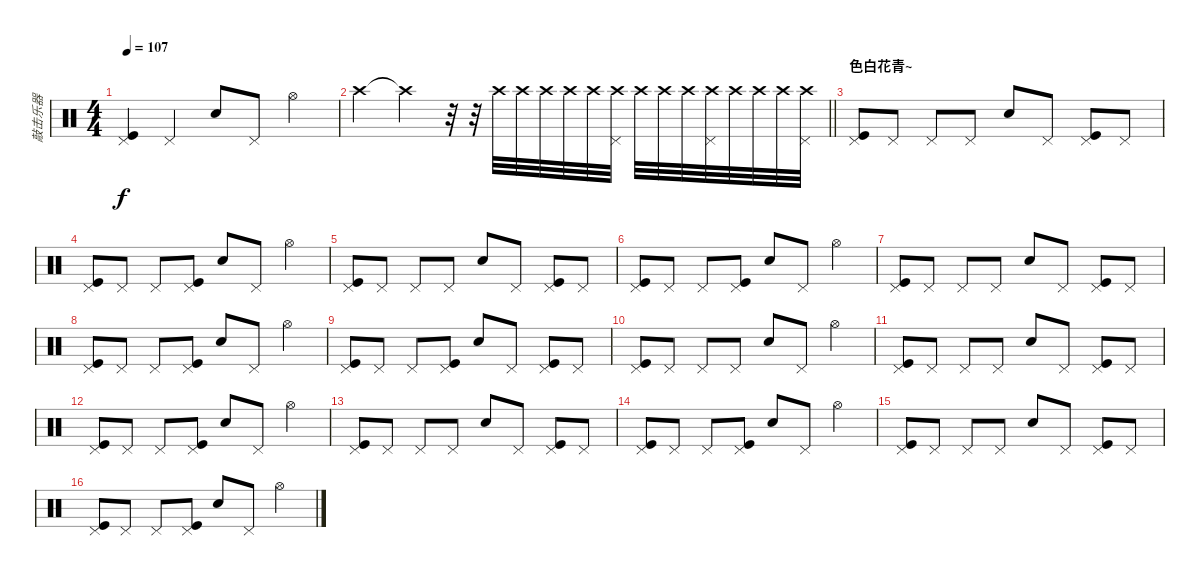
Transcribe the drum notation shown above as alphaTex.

\track ("敲击乐器" "敲击乐器") {instrument percussion}
\staff {score}
\articulation defaults
\ts (4 4)
\tempo 107
\clef neutral
\ks c
("Kick (hit)" "Pedal Hi-Hat (hit)").4{dy f} "Pedal Hi-Hat (hit)".4 "Snare (hit) 2".8 "Pedal Hi-Hat (hit)".8 "Hi-Hat (open)".4 |
\barLineRight lightlight "Crash high (hit)".4 "Crash high (hit)"{t}.4
r.32 r.32 "Crash high (hit)".32{volume 0} "Crash high (hit)".32{volume 16} "Crash high (hit)".32 "Crash high (hit)".32 "Crash high (hit)".32 ("Crash high (hit)" "Pedal Hi-Hat (hit)").32 "Crash high (hit)".32 "Crash high (hit)".32 "Crash high (hit)".32 ("Crash high (hit)" "Pedal Hi-Hat (hit)").32 "Crash high (hit)".32 "Crash high (hit)".32 "Crash high (hit)".32 ("Crash high (hit)" "Pedal Hi-Hat (hit)").32 |
\section ("" "色白花青~")
("Kick (hit)" "Pedal Hi-Hat (hit)").8 "Pedal Hi-Hat (hit)".8 "Pedal Hi-Hat (hit)".8 "Pedal Hi-Hat (hit)".8 "Snare (hit) 2".8 "Pedal Hi-Hat (hit)".8 ("Kick (hit)" "Pedal Hi-Hat (hit)").8 "Pedal Hi-Hat (hit)".8 |
("Kick (hit)" "Pedal Hi-Hat (hit)").8 "Pedal Hi-Hat (hit)".8 "Pedal Hi-Hat (hit)".8 ("Kick (hit)" "Pedal Hi-Hat (hit)").8 "Snare (hit) 2".8 "Pedal Hi-Hat (hit)".8 "Hi-Hat (open)".4 |
("Kick (hit)" "Pedal Hi-Hat (hit)").8 "Pedal Hi-Hat (hit)".8 "Pedal Hi-Hat (hit)".8 "Pedal Hi-Hat (hit)".8 "Snare (hit) 2".8 "Pedal Hi-Hat (hit)".8 ("Kick (hit)" "Pedal Hi-Hat (hit)").8 "Pedal Hi-Hat (hit)".8 |
("Kick (hit)" "Pedal Hi-Hat (hit)").8 "Pedal Hi-Hat (hit)".8 "Pedal Hi-Hat (hit)".8 ("Kick (hit)" "Pedal Hi-Hat (hit)").8 "Snare (hit) 2".8 "Pedal Hi-Hat (hit)".8 "Hi-Hat (open)".4 |
("Kick (hit)" "Pedal Hi-Hat (hit)").8 "Pedal Hi-Hat (hit)".8 "Pedal Hi-Hat (hit)".8 "Pedal Hi-Hat (hit)".8 "Snare (hit) 2".8 "Pedal Hi-Hat (hit)".8 ("Kick (hit)" "Pedal Hi-Hat (hit)").8 "Pedal Hi-Hat (hit)".8 |
("Kick (hit)" "Pedal Hi-Hat (hit)").8 "Pedal Hi-Hat (hit)".8 "Pedal Hi-Hat (hit)".8 ("Kick (hit)" "Pedal Hi-Hat (hit)").8 "Snare (hit) 2".8 "Pedal Hi-Hat (hit)".8 "Hi-Hat (open)".4 |
("Kick (hit)" "Pedal Hi-Hat (hit)").8 "Pedal Hi-Hat (hit)".8 "Pedal Hi-Hat (hit)".8 ("Kick (hit)" "Pedal Hi-Hat (hit)").8 "Snare (hit) 2".8 "Pedal Hi-Hat (hit)".8 ("Kick (hit)" "Pedal Hi-Hat (hit)").8 "Pedal Hi-Hat (hit)".8 |
("Kick (hit)" "Pedal Hi-Hat (hit)").8 "Pedal Hi-Hat (hit)".8 "Pedal Hi-Hat (hit)".8 "Pedal Hi-Hat (hit)".8 "Snare (hit) 2".8 "Pedal Hi-Hat (hit)".8 "Hi-Hat (open)".4 |
("Kick (hit)" "Pedal Hi-Hat (hit)").8 "Pedal Hi-Hat (hit)".8 "Pedal Hi-Hat (hit)".8 "Pedal Hi-Hat (hit)".8 "Snare (hit) 2".8 "Pedal Hi-Hat (hit)".8 ("Kick (hit)" "Pedal Hi-Hat (hit)").8 "Pedal Hi-Hat (hit)".8 |
("Kick (hit)" "Pedal Hi-Hat (hit)").8 "Pedal Hi-Hat (hit)".8 "Pedal Hi-Hat (hit)".8 ("Kick (hit)" "Pedal Hi-Hat (hit)").8 "Snare (hit) 2".8 "Pedal Hi-Hat (hit)".8 "Hi-Hat (open)".4 |
("Kick (hit)" "Pedal Hi-Hat (hit)").8 "Pedal Hi-Hat (hit)".8 "Pedal Hi-Hat (hit)".8 "Pedal Hi-Hat (hit)".8 "Snare (hit) 2".8 "Pedal Hi-Hat (hit)".8 ("Kick (hit)" "Pedal Hi-Hat (hit)").8 "Pedal Hi-Hat (hit)".8 |
("Kick (hit)" "Pedal Hi-Hat (hit)").8 "Pedal Hi-Hat (hit)".8 "Pedal Hi-Hat (hit)".8 ("Kick (hit)" "Pedal Hi-Hat (hit)").8 "Snare (hit) 2".8 "Pedal Hi-Hat (hit)".8 "Hi-Hat (open)".4 |
("Kick (hit)" "Pedal Hi-Hat (hit)").8 "Pedal Hi-Hat (hit)".8 "Pedal Hi-Hat (hit)".8 "Pedal Hi-Hat (hit)".8 "Snare (hit) 2".8 "Pedal Hi-Hat (hit)".8 ("Kick (hit)" "Pedal Hi-Hat (hit)").8 "Pedal Hi-Hat (hit)".8 |
("Kick (hit)" "Pedal Hi-Hat (hit)").8 "Pedal Hi-Hat (hit)".8 "Pedal Hi-Hat (hit)".8 ("Kick (hit)" "Pedal Hi-Hat (hit)").8 "Snare (hit) 2".8 "Pedal Hi-Hat (hit)".8 "Hi-Hat (open)".4
